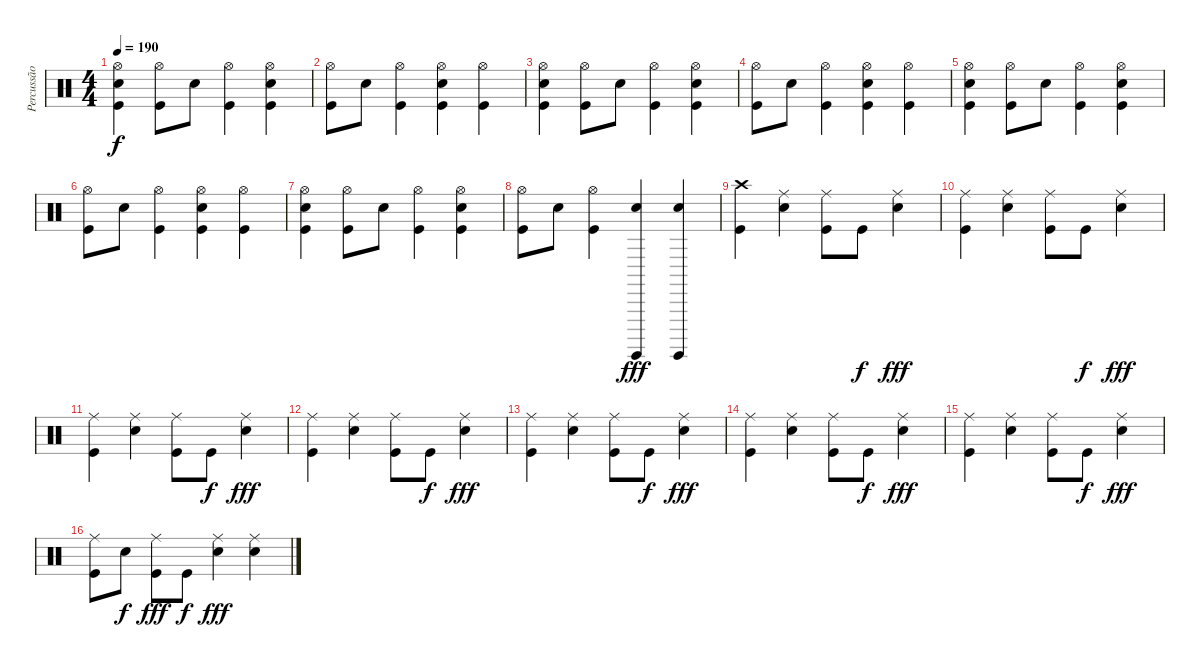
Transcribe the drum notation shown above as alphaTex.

\track ("Percussão" "Percussão") {instrument percussion}
\staff {score}
\articulation defaults
\ts (4 4)
\tempo 190
\clef neutral
\ks c
("Hi-Hat (open)" "Snare (hit) 2" "Kick (hit)").4{dy f} ("Hi-Hat (open)" "Kick (hit)").8 "Snare (hit) 2".8 ("Hi-Hat (open)" "Kick (hit)").4 ("Hi-Hat (open)" "Snare (hit) 2" "Kick (hit)").4 |
("Hi-Hat (open)" "Kick (hit)").8 "Snare (hit) 2".8 ("Hi-Hat (open)" "Kick (hit)").4 ("Hi-Hat (open)" "Snare (hit) 2" "Kick (hit)").4 ("Hi-Hat (open)" "Kick (hit)").4 |
("Hi-Hat (open)" "Snare (hit) 2" "Kick (hit)").4 ("Hi-Hat (open)" "Kick (hit)").8 "Snare (hit) 2".8 ("Hi-Hat (open)" "Kick (hit)").4 ("Hi-Hat (open)" "Snare (hit) 2" "Kick (hit)").4 |
("Hi-Hat (open)" "Kick (hit)").8 "Snare (hit) 2".8 ("Hi-Hat (open)" "Kick (hit)").4 ("Hi-Hat (open)" "Snare (hit) 2" "Kick (hit)").4 ("Hi-Hat (open)" "Kick (hit)").4 |
("Hi-Hat (open)" "Snare (hit) 2" "Kick (hit)").4 ("Hi-Hat (open)" "Kick (hit)").8 "Snare (hit) 2".8 ("Hi-Hat (open)" "Kick (hit)").4 ("Hi-Hat (open)" "Snare (hit) 2" "Kick (hit)").4 |
("Hi-Hat (open)" "Kick (hit)").8 "Snare (hit) 2".8 ("Hi-Hat (open)" "Kick (hit)").4 ("Hi-Hat (open)" "Snare (hit) 2" "Kick (hit)").4 ("Hi-Hat (open)" "Kick (hit)").4 |
("Hi-Hat (open)" "Snare (hit) 2" "Kick (hit)").4 ("Hi-Hat (open)" "Kick (hit)").8 "Snare (hit) 2".8 ("Hi-Hat (open)" "Kick (hit)").4 ("Hi-Hat (open)" "Snare (hit) 2" "Kick (hit)").4 |
("Hi-Hat (open)" "Kick (hit)").8 "Snare (hit) 2".8 ("Hi-Hat (open)" "Kick (hit)").4 ("Snare (hit) 2" "Surdo (hit)").4{dy fff} ("Snare (hit) 2" "Surdo (hit)").4 |
("Crash high (hit)" "Kick (hit)").4 ("Ride (middle)" "Snare (hit) 2").4 ("Ride (middle)" "Kick (hit)").8 "Kick (hit)".8{dy f} ("Ride (middle)" "Snare (hit) 2").4{dy fff} |
("Ride (middle)" "Kick (hit)").4 ("Ride (middle)" "Snare (hit) 2").4 ("Ride (middle)" "Kick (hit)").8 "Kick (hit)".8{dy f} ("Ride (middle)" "Snare (hit) 2").4{dy fff} |
("Ride (middle)" "Kick (hit)").4 ("Ride (middle)" "Snare (hit) 2").4 ("Ride (middle)" "Kick (hit)").8 "Kick (hit)".8{dy f} ("Ride (middle)" "Snare (hit) 2").4{dy fff} |
("Ride (middle)" "Kick (hit)").4 ("Ride (middle)" "Snare (hit) 2").4 ("Ride (middle)" "Kick (hit)").8 "Kick (hit)".8{dy f} ("Ride (middle)" "Snare (hit) 2").4{dy fff} |
("Ride (middle)" "Kick (hit)").4 ("Ride (middle)" "Snare (hit) 2").4 ("Ride (middle)" "Kick (hit)").8 "Kick (hit)".8{dy f} ("Ride (middle)" "Snare (hit) 2").4{dy fff} |
("Ride (middle)" "Kick (hit)").4 ("Ride (middle)" "Snare (hit) 2").4 ("Ride (middle)" "Kick (hit)").8 "Kick (hit)".8{dy f} ("Ride (middle)" "Snare (hit) 2").4{dy fff} |
("Ride (middle)" "Kick (hit)").4 ("Ride (middle)" "Snare (hit) 2").4 ("Ride (middle)" "Kick (hit)").8 "Kick (hit)".8{dy f} ("Ride (middle)" "Snare (hit) 2").4{dy fff} |
("Ride (middle)" "Kick (hit)").8 "Snare (hit) 2".8{dy f} ("Ride (middle)" "Kick (hit)").8{dy fff} "Kick (hit)".8{dy f} ("Ride (middle)" "Snare (hit) 2").4{dy fff} ("Ride (middle)" "Snare (hit) 2").4
